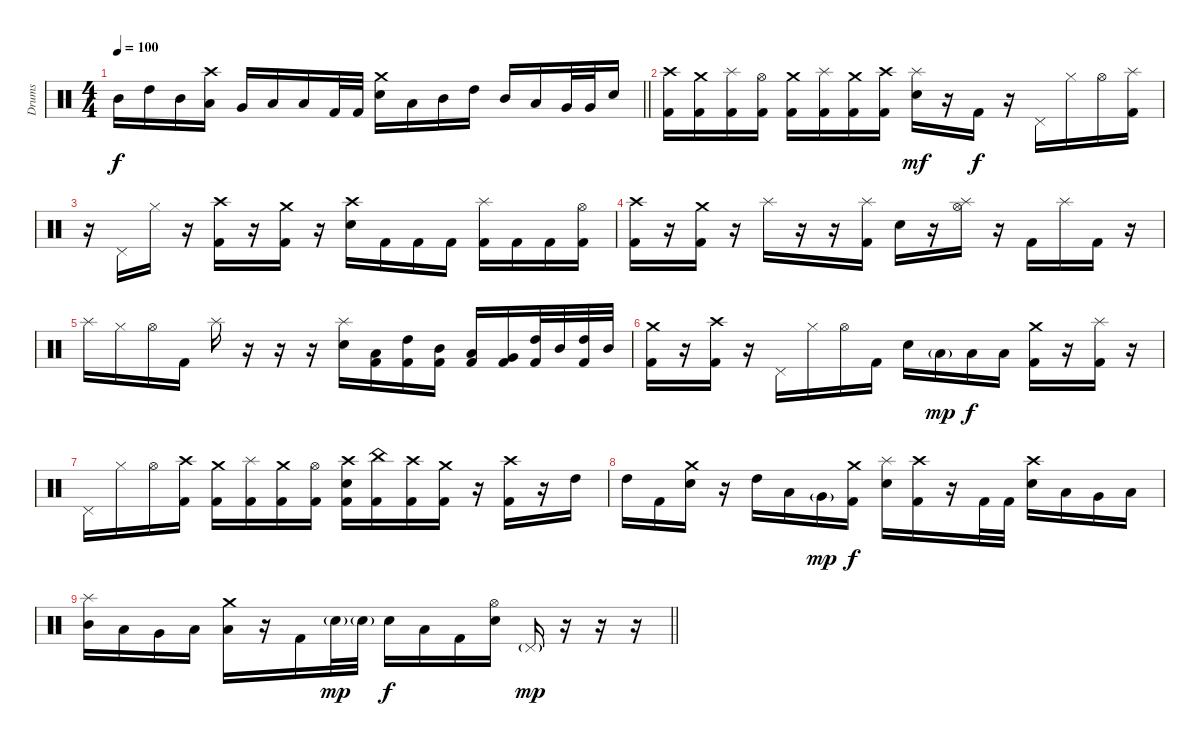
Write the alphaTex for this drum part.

\track ("Drums" "Drums") {instrument percussion}
\staff {score}
\articulation defaults
\ts (4 4)
\tempo 100
\clef neutral
\barLineRight lightlight
\ks c "Mid Tom (hit)".16{dy f} "High Tom (hit)".16 "Mid Tom (hit)".16
("Crash high (hit)" "Low Tom (hit)").16 "Very Low Tom (hit)".16 "Low Tom (hit)".16 "Low Floor Tom (hit)".16 "Kick (hit) 2".32 "Kick (hit) 2".32 ("Crash medium (hit)" "Electric Snare (hit)").16 "Low Tom (hit)".16 "Mid Tom (hit)".16 "High Tom (hit)".16 "Mid Tom (hit)".16 "Low Tom (hit)".16 "Very Low Tom (hit)".32 "Very Low Tom (hit)".32 "Electric Snare (hit)".16 |
\section ("" "")
("Crash high (hit)" "Kick (hit) 2").16 ("Crash medium (hit)" "Kick (hit) 2").16 ("Splash (hit)" "Kick (hit) 2").16 ("Hi-Hat (open)" "Kick (hit) 2").16 ("Crash medium (hit)" "Kick (hit) 2").16 ("Splash (hit)" "Kick (hit) 2").16 ("Crash medium (hit)" "Kick (hit) 2").16 ("Crash high (hit)" "Kick (hit) 2").16 ("Splash (hit)" "Electric Snare (hit)").16{dy mf} r.16 "Kick (hit) 2".16{dy f} r.16 "Pedal Hi-Hat (hit)".16 "Hi-Hat (closed)".16 "Hi-Hat (open)".16 ("Splash (hit)" "Kick (hit) 2").16 |
r.16 "Pedal Hi-Hat (hit)".16 "Hi-Hat (closed)".16 r.16 ("Crash high (hit)" "Kick (hit) 2").16 r.16 ("Crash medium (hit)" "Kick (hit) 2").16 r.16 ("Crash high (hit)" "Electric Snare (hit)").16 "Kick (hit) 2".16 "Kick (hit) 2".16 "Kick (hit) 2".16 ("Splash (hit)" "Kick (hit) 2").16 "Kick (hit) 2".16 "Kick (hit) 2".16 ("Hi-Hat (open)" "Kick (hit) 2").16 |
("Crash high (hit)" "Kick (hit) 2").16 r.16 ("Crash medium (hit)" "Kick (hit) 2").16 r.16 "Splash (hit)".16 r.16 r.16 ("Splash (hit)" "Kick (hit) 2").16 "Electric Snare (hit)".16 r.16 ("Splash (hit)" "Hi-Hat (open)").16 r.16 "Kick (hit) 2".16 "Splash (hit)".16 "Kick (hit) 2".16 r.16 |
"Splash (hit)".16 "Hi-Hat (closed)".16 "Hi-Hat (open)".16 "Kick (hit) 2".16 "Splash (hit)".16 r.16 r.16 r.16 ("Splash (hit)" "Electric Snare (hit)").16 ("Low Tom (hit)" "Kick (hit) 2").16 ("High Tom (hit)" "Kick (hit) 2").16 ("Mid Tom (hit)" "Kick (hit) 2").16 ("Low Tom (hit)" "Kick (hit) 2").16 ("Very Low Tom (hit)" "Kick (hit) 2").16 ("High Tom (hit)" "Kick (hit) 2").32 "Mid Tom (hit)".32 ("High Tom (hit)" "Kick (hit) 2").32 "Mid Tom (hit)".32 |
("Crash medium (hit)" "Kick (hit) 2").16 r.16 ("Crash high (hit)" "Kick (hit) 2").16 r.16 "Pedal Hi-Hat (hit)".16 "Hi-Hat (closed)".16 "Hi-Hat (open)".16 "Kick (hit) 2".16 "Electric Snare (hit)".16 "Low Floor Tom (hit)"{g}.16{dy mp} "Low Floor Tom (hit)".16{dy f} "Low Floor Tom (hit)".16 ("Crash medium (hit)" "Kick (hit) 2").16 r.16 ("Splash (hit)" "Kick (hit) 2").16 r.16 |
"Pedal Hi-Hat (hit)".16 "Hi-Hat (closed)".16 "Hi-Hat (open)".16 ("Crash high (hit)" "Kick (hit) 2").16 ("Crash medium (hit)" "Kick (hit) 2").16 ("Splash (hit)" "Kick (hit) 2").16 ("Crash medium (hit)" "Kick (hit) 2").16 ("Hi-Hat (open)" "Kick (hit) 2").16 ("Crash high (hit)" "Electric Snare (hit)" "Kick (hit) 2").16 ("China (hit)" "Kick (hit) 2").16 ("Crash high (hit)" "Kick (hit) 2").16 ("Crash medium (hit)" "Kick (hit) 2").16 r.16 ("Crash high (hit)" "Kick (hit) 2").16 r.16 "High Tom (hit)".16 |
"High Tom (hit)".16 "Kick (hit) 2".16 ("Crash medium (hit)" "Electric Snare (hit)").16 r.16 "High Tom (hit)".16 "Low Tom (hit)".16 "Very Low Tom (hit)"{g}.16{dy mp} ("Crash medium (hit)" "Kick (hit) 2").16{dy f} ("Splash (hit)" "Electric Snare (hit)").16 ("Crash high (hit)" "Kick (hit) 2").16 r.16 "Kick (hit) 2".32 "Kick (hit) 2".32 ("Crash high (hit)" "Electric Snare (hit)").16 "Low Floor Tom (hit)".16 "Very Low Tom (hit)".16 "Low Tom (hit)".16 |
\barLineRight lightlight
("Splash (hit)" "Mid Tom (hit)").16 "Low Tom (hit)".16 "Very Low Tom (hit)".16 "Low Tom (hit)".16 ("Crash medium (hit)" "Low Floor Tom (hit)").16 r.16 "Kick (hit) 2".16 "Electric Snare (hit)"{g}.32{dy mp} "Electric Snare (hit)"{g}.32 "Electric Snare (hit)".16{dy f} "Low Tom (hit)".16 "Kick (hit) 2".16 ("Hi-Hat (open)" "Electric Snare (hit)").16 "Pedal Hi-Hat (hit)"{g}.16{dy mp} r.16 r.16 r.16
